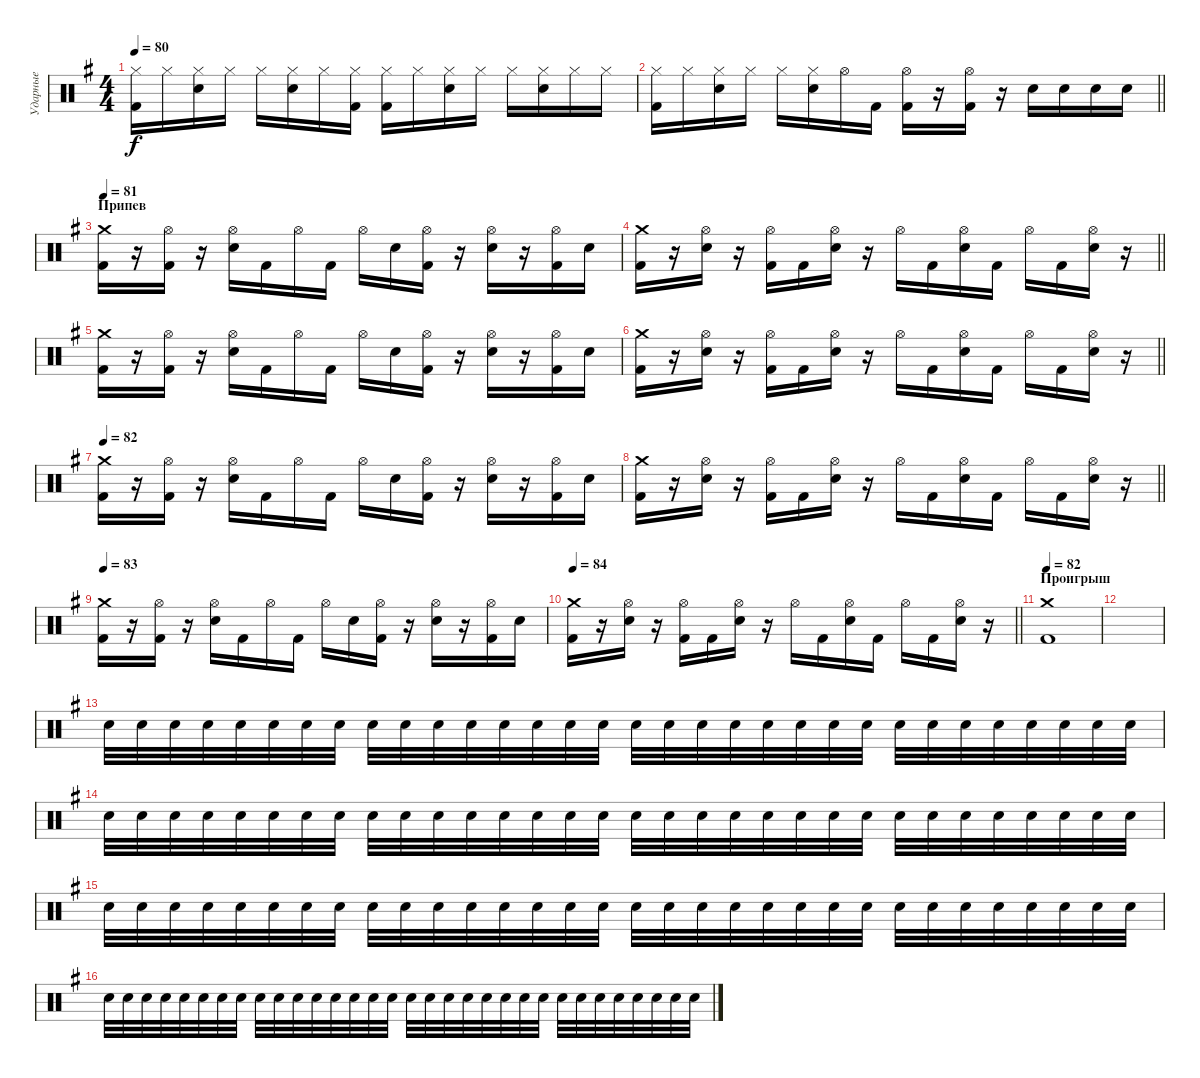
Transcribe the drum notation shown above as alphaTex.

\track ("Ударные" "Ударные") {instrument percussion}
\staff {score}
\articulation defaults
\ts (4 4)
\tempo 80
\clef neutral
\ks eminor
("Hi-Hat (closed)" "Kick (hit) 2").16{dy f} "Hi-Hat (closed)".16 ("Hi-Hat (closed)" "Electric Snare (hit)").16 "Hi-Hat (closed)".16 "Hi-Hat (closed)".16 ("Hi-Hat (closed)" "Electric Snare (hit)").16 "Hi-Hat (closed)".16 ("Hi-Hat (closed)" "Kick (hit) 2").16 ("Hi-Hat (closed)" "Kick (hit) 2").16 "Hi-Hat (closed)".16 ("Hi-Hat (closed)" "Electric Snare (hit)").16 "Hi-Hat (closed)".16 "Hi-Hat (closed)".16 ("Hi-Hat (closed)" "Electric Snare (hit)").16 "Hi-Hat (closed)".16 "Hi-Hat (closed)".16 |
\barLineRight lightlight
("Hi-Hat (closed)" "Kick (hit) 2").16 "Hi-Hat (closed)".16 ("Hi-Hat (closed)" "Electric Snare (hit)").16 "Hi-Hat (closed)".16 "Hi-Hat (closed)".16 ("Hi-Hat (closed)" "Electric Snare (hit)").16 "Hi-Hat (open)".16 "Kick (hit) 2".16 ("Hi-Hat (open)" "Kick (hit) 2").16 r.16 ("Hi-Hat (open)" "Kick (hit) 2").16 r.16 "Electric Snare (hit)".16 "Electric Snare (hit)".16 "Electric Snare (hit)".16 "Electric Snare (hit)".16 |
\section ("" "Припев")
\tempo 81
("Crash medium (hit)" "Kick (hit) 2").16 r.16 ("Hi-Hat (open)" "Kick (hit) 2").16 r.16 ("Hi-Hat (open)" "Electric Snare (hit)").16 "Kick (hit) 2".16 "Hi-Hat (open)".16 "Kick (hit) 2".16 "Hi-Hat (open)".16 "Electric Snare (hit)".16 ("Hi-Hat (open)" "Kick (hit) 2").16 r.16 ("Hi-Hat (open)" "Electric Snare (hit)").16 r.16 ("Hi-Hat (open)" "Kick (hit) 2").16 "Electric Snare (hit)".16 |
\barLineRight lightlight
("Crash medium (hit)" "Kick (hit) 2").16 r.16 ("Hi-Hat (open)" "Electric Snare (hit)").16 r.16 ("Hi-Hat (open)" "Kick (hit) 2").16 "Kick (hit) 2".16 ("Hi-Hat (open)" "Electric Snare (hit)").16 r.16 "Hi-Hat (open)".16 "Kick (hit) 2".16 ("Hi-Hat (open)" "Electric Snare (hit)").16 "Kick (hit) 2".16 "Hi-Hat (open)".16 "Kick (hit) 2".16 ("Hi-Hat (open)" "Electric Snare (hit)").16 r.16 |
("Crash medium (hit)" "Kick (hit) 2").16 r.16 ("Hi-Hat (open)" "Kick (hit) 2").16 r.16 ("Hi-Hat (open)" "Electric Snare (hit)").16 "Kick (hit) 2".16 "Hi-Hat (open)".16 "Kick (hit) 2".16 "Hi-Hat (open)".16 "Electric Snare (hit)".16 ("Hi-Hat (open)" "Kick (hit) 2").16 r.16 ("Hi-Hat (open)" "Electric Snare (hit)").16 r.16 ("Hi-Hat (open)" "Kick (hit) 2").16 "Electric Snare (hit)".16 |
\barLineRight lightlight
("Crash medium (hit)" "Kick (hit) 2").16 r.16 ("Hi-Hat (open)" "Electric Snare (hit)").16 r.16 ("Hi-Hat (open)" "Kick (hit) 2").16 "Kick (hit) 2".16 ("Hi-Hat (open)" "Electric Snare (hit)").16 r.16 "Hi-Hat (open)".16 "Kick (hit) 2".16 ("Hi-Hat (open)" "Electric Snare (hit)").16 "Kick (hit) 2".16 "Hi-Hat (open)".16 "Kick (hit) 2".16 ("Hi-Hat (open)" "Electric Snare (hit)").16 r.16 |
\tempo 82
("Crash medium (hit)" "Kick (hit) 2").16 r.16 ("Hi-Hat (open)" "Kick (hit) 2").16 r.16 ("Hi-Hat (open)" "Electric Snare (hit)").16 "Kick (hit) 2".16 "Hi-Hat (open)".16 "Kick (hit) 2".16 "Hi-Hat (open)".16 "Electric Snare (hit)".16 ("Hi-Hat (open)" "Kick (hit) 2").16 r.16 ("Hi-Hat (open)" "Electric Snare (hit)").16 r.16 ("Hi-Hat (open)" "Kick (hit) 2").16 "Electric Snare (hit)".16 |
\barLineRight lightlight
("Crash medium (hit)" "Kick (hit) 2").16 r.16 ("Hi-Hat (open)" "Electric Snare (hit)").16 r.16 ("Hi-Hat (open)" "Kick (hit) 2").16 "Kick (hit) 2".16 ("Hi-Hat (open)" "Electric Snare (hit)").16 r.16 "Hi-Hat (open)".16 "Kick (hit) 2".16 ("Hi-Hat (open)" "Electric Snare (hit)").16 "Kick (hit) 2".16 "Hi-Hat (open)".16 "Kick (hit) 2".16 ("Hi-Hat (open)" "Electric Snare (hit)").16 r.16 |
\tempo 83
("Crash medium (hit)" "Kick (hit) 2").16 r.16 ("Hi-Hat (open)" "Kick (hit) 2").16 r.16 ("Hi-Hat (open)" "Electric Snare (hit)").16 "Kick (hit) 2".16 "Hi-Hat (open)".16 "Kick (hit) 2".16 "Hi-Hat (open)".16 "Electric Snare (hit)".16 ("Hi-Hat (open)" "Kick (hit) 2").16 r.16 ("Hi-Hat (open)" "Electric Snare (hit)").16 r.16 ("Hi-Hat (open)" "Kick (hit) 2").16 "Electric Snare (hit)".16 |
\tempo 84
\barLineRight lightlight
("Crash medium (hit)" "Kick (hit) 2").16 r.16 ("Hi-Hat (open)" "Electric Snare (hit)").16 r.16 ("Hi-Hat (open)" "Kick (hit) 2").16 "Kick (hit) 2".16 ("Hi-Hat (open)" "Electric Snare (hit)").16 r.16 "Hi-Hat (open)".16 "Kick (hit) 2".16 ("Hi-Hat (open)" "Electric Snare (hit)").16 "Kick (hit) 2".16 "Hi-Hat (open)".16 "Kick (hit) 2".16 ("Hi-Hat (open)" "Electric Snare (hit)").16 r.16 |
\section ("" "Проигрыш")
\tempo 82
("Crash medium (hit)" "Kick (hit) 2").1 |
|
"Electric Snare (hit)".32{volume 10} "Electric Snare (hit)".32 "Electric Snare (hit)".32 "Electric Snare (hit)".32 "Electric Snare (hit)".32 "Electric Snare (hit)".32 "Electric Snare (hit)".32 "Electric Snare (hit)".32 "Electric Snare (hit)".32 "Electric Snare (hit)".32 "Electric Snare (hit)".32 "Electric Snare (hit)".32 "Electric Snare (hit)".32 "Electric Snare (hit)".32 "Electric Snare (hit)".32 "Electric Snare (hit)".32 "Electric Snare (hit)".32 "Electric Snare (hit)".32 "Electric Snare (hit)".32 "Electric Snare (hit)".32 "Electric Snare (hit)".32 "Electric Snare (hit)".32 "Electric Snare (hit)".32 "Electric Snare (hit)".32 "Electric Snare (hit)".32 "Electric Snare (hit)".32 "Electric Snare (hit)".32 "Electric Snare (hit)".32 "Electric Snare (hit)".32 "Electric Snare (hit)".32 "Electric Snare (hit)".32 "Electric Snare (hit)".32 |
"Electric Snare (hit)".32 "Electric Snare (hit)".32 "Electric Snare (hit)".32 "Electric Snare (hit)".32 "Electric Snare (hit)".32 "Electric Snare (hit)".32 "Electric Snare (hit)".32 "Electric Snare (hit)".32 "Electric Snare (hit)".32 "Electric Snare (hit)".32 "Electric Snare (hit)".32 "Electric Snare (hit)".32 "Electric Snare (hit)".32 "Electric Snare (hit)".32 "Electric Snare (hit)".32 "Electric Snare (hit)".32 "Electric Snare (hit)".32 "Electric Snare (hit)".32 "Electric Snare (hit)".32 "Electric Snare (hit)".32 "Electric Snare (hit)".32 "Electric Snare (hit)".32 "Electric Snare (hit)".32 "Electric Snare (hit)".32 "Electric Snare (hit)".32 "Electric Snare (hit)".32 "Electric Snare (hit)".32 "Electric Snare (hit)".32 "Electric Snare (hit)".32 "Electric Snare (hit)".32 "Electric Snare (hit)".32 "Electric Snare (hit)".32 |
"Electric Snare (hit)".32 "Electric Snare (hit)".32 "Electric Snare (hit)".32 "Electric Snare (hit)".32 "Electric Snare (hit)".32 "Electric Snare (hit)".32 "Electric Snare (hit)".32 "Electric Snare (hit)".32 "Electric Snare (hit)".32 "Electric Snare (hit)".32 "Electric Snare (hit)".32 "Electric Snare (hit)".32 "Electric Snare (hit)".32 "Electric Snare (hit)".32 "Electric Snare (hit)".32 "Electric Snare (hit)".32 "Electric Snare (hit)".32 "Electric Snare (hit)".32 "Electric Snare (hit)".32 "Electric Snare (hit)".32 "Electric Snare (hit)".32 "Electric Snare (hit)".32 "Electric Snare (hit)".32 "Electric Snare (hit)".32 "Electric Snare (hit)".32 "Electric Snare (hit)".32 "Electric Snare (hit)".32 "Electric Snare (hit)".32 "Electric Snare (hit)".32 "Electric Snare (hit)".32 "Electric Snare (hit)".32 "Electric Snare (hit)".32 |
"Electric Snare (hit)".32 "Electric Snare (hit)".32 "Electric Snare (hit)".32 "Electric Snare (hit)".32 "Electric Snare (hit)".32 "Electric Snare (hit)".32 "Electric Snare (hit)".32 "Electric Snare (hit)".32 "Electric Snare (hit)".32 "Electric Snare (hit)".32 "Electric Snare (hit)".32 "Electric Snare (hit)".32 "Electric Snare (hit)".32 "Electric Snare (hit)".32 "Electric Snare (hit)".32 "Electric Snare (hit)".32 "Electric Snare (hit)".32 "Electric Snare (hit)".32 "Electric Snare (hit)".32 "Electric Snare (hit)".32 "Electric Snare (hit)".32 "Electric Snare (hit)".32 "Electric Snare (hit)".32 "Electric Snare (hit)".32 "Electric Snare (hit)".32 "Electric Snare (hit)".32 "Electric Snare (hit)".32 "Electric Snare (hit)".32 "Electric Snare (hit)".32 "Electric Snare (hit)".32 "Electric Snare (hit)".32 "Electric Snare (hit)".32
